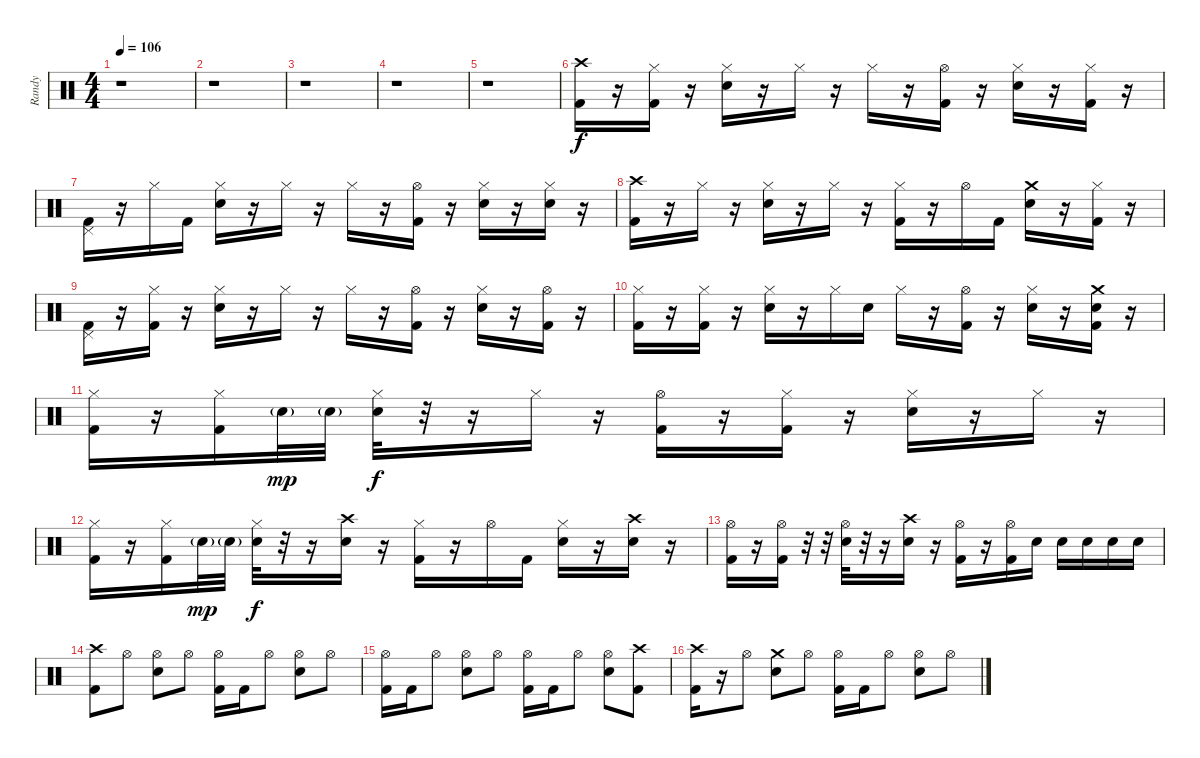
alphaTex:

\track ("Randy" "Randy") {instrument percussion}
\staff {score}
\articulation defaults
\ts (4 4)
\tempo 106
\clef neutral
\ks c
r.1{dy f} |
r.1 |
r.1 |
r.1 |
r.1 |
("Crash high (hit)" "Kick (hit) 2").16 r.16 ("Hi-Hat (closed)" "Kick (hit) 2").16 r.16 ("Hi-Hat (closed)" "Electric Snare (hit)").16 r.16 "Hi-Hat (closed)".16 r.16 "Hi-Hat (closed)".16 r.16 ("Hi-Hat (open)" "Kick (hit) 2").16 r.16 ("Hi-Hat (closed)" "Electric Snare (hit)").16 r.16 ("Hi-Hat (closed)" "Kick (hit) 2").16 r.16 |
("Pedal Hi-Hat (hit)" "Kick (hit) 2").16 r.16 "Hi-Hat (closed)".16 "Kick (hit) 2".16 ("Hi-Hat (closed)" "Electric Snare (hit)").16 r.16 "Hi-Hat (closed)".16 r.16 "Hi-Hat (closed)".16 r.16 ("Hi-Hat (open)" "Kick (hit) 2").16 r.16 ("Hi-Hat (closed)" "Electric Snare (hit)").16 r.16 ("Hi-Hat (closed)" "Electric Snare (hit)").16 r.16 |
("Crash high (hit)" "Kick (hit) 2").16 r.16 "Hi-Hat (closed)".16 r.16 ("Hi-Hat (closed)" "Electric Snare (hit)").16 r.16 "Hi-Hat (closed)".16 r.16 ("Hi-Hat (closed)" "Kick (hit) 2").16 r.16 "Hi-Hat (open)".16 "Kick (hit) 2".16 ("Crash medium (hit)" "Electric Snare (hit)").16 r.16 ("Hi-Hat (closed)" "Kick (hit) 2").16 r.16 |
("Pedal Hi-Hat (hit)" "Kick (hit) 2").16 r.16 ("Hi-Hat (closed)" "Kick (hit) 2").16 r.16 ("Hi-Hat (closed)" "Electric Snare (hit)").16 r.16 "Hi-Hat (closed)".16 r.16 "Hi-Hat (closed)".16 r.16 ("Hi-Hat (open)" "Kick (hit) 2").16 r.16 ("Hi-Hat (closed)" "Electric Snare (hit)").16 r.16 ("Hi-Hat (open)" "Kick (hit) 2").16 r.16 |
("Hi-Hat (closed)" "Kick (hit) 2").16 r.16 ("Hi-Hat (closed)" "Kick (hit) 2").16 r.16 ("Hi-Hat (closed)" "Electric Snare (hit)").16 r.16 "Hi-Hat (closed)".16 "Electric Snare (hit)".16 "Hi-Hat (closed)".16 r.16 ("Hi-Hat (open)" "Kick (hit) 2").16 r.16 ("Hi-Hat (closed)" "Electric Snare (hit)").16 r.16 ("Crash medium (hit)" "Electric Snare (hit)" "Kick (hit) 2").16 r.16 |
("Hi-Hat (closed)" "Kick (hit) 2").16 r.16 ("Hi-Hat (closed)" "Kick (hit) 2").16 "Electric Snare (hit)"{g}.32{dy mp} "Electric Snare (hit)"{g}.32 ("Hi-Hat (closed)" "Electric Snare (hit)").32{dy f} r.32 r.16 "Hi-Hat (closed)".16 r.16 ("Hi-Hat (open)" "Kick (hit) 2").16 r.16 ("Hi-Hat (closed)" "Kick (hit) 2").16 r.16 ("Hi-Hat (closed)" "Electric Snare (hit)").16 r.16 "Hi-Hat (closed)".16 r.16 |
("Hi-Hat (closed)" "Kick (hit) 2").16 r.16 ("Hi-Hat (closed)" "Kick (hit) 2").16 "Electric Snare (hit)"{g}.32{dy mp} "Electric Snare (hit)"{g}.32 ("Hi-Hat (closed)" "Electric Snare (hit)").32{dy f} r.32 r.16 ("Crash high (hit)" "Electric Snare (hit)").16 r.16 ("Hi-Hat (closed)" "Kick (hit) 2").16 r.16 "Hi-Hat (open)".16 "Kick (hit) 2".16 ("Hi-Hat (closed)" "Electric Snare (hit)").16 r.16 ("Crash high (hit)" "Electric Snare (hit)").16 r.16 |
("Hi-Hat (open)" "Kick (hit) 2").16 r.16 ("Hi-Hat (open)" "Kick (hit) 2").16 r.32 r.32 ("Hi-Hat (open)" "Electric Snare (hit)").32 r.32 r.16 ("Crash high (hit)" "Electric Snare (hit)").16 r.16 ("Hi-Hat (open)" "Kick (hit) 2").16 r.16 ("Hi-Hat (open)" "Kick (hit) 2").16 "Electric Snare (hit)".16 "Electric Snare (hit)".16 "Electric Snare (hit)".16 "Electric Snare (hit)".16 "Electric Snare (hit)".16 |
("Crash high (hit)" "Kick (hit) 2").8 "Hi-Hat (open)".8 ("Hi-Hat (open)" "Electric Snare (hit)").8 "Hi-Hat (open)".8 ("Hi-Hat (open)" "Kick (hit) 2").16 "Kick (hit) 2".16 "Hi-Hat (open)".8 ("Hi-Hat (open)" "Electric Snare (hit)").8 "Hi-Hat (open)".8 |
("Hi-Hat (open)" "Kick (hit) 2").16 "Kick (hit) 2".16 "Hi-Hat (open)".8 ("Hi-Hat (open)" "Electric Snare (hit)").8 "Hi-Hat (open)".8 ("Hi-Hat (open)" "Kick (hit) 2").16 "Kick (hit) 2".16 "Hi-Hat (open)".8 ("Hi-Hat (open)" "Electric Snare (hit)").8 ("Crash high (hit)" "Kick (hit) 2").8 |
("Crash high (hit)" "Kick (hit) 2").16 r.16 "Hi-Hat (open)".8 ("Crash medium (hit)" "Electric Snare (hit)").8 "Hi-Hat (open)".8 ("Hi-Hat (open)" "Kick (hit) 2").16 "Kick (hit) 2".16 "Hi-Hat (open)".8 ("Hi-Hat (open)" "Electric Snare (hit)").8 "Hi-Hat (open)".8
